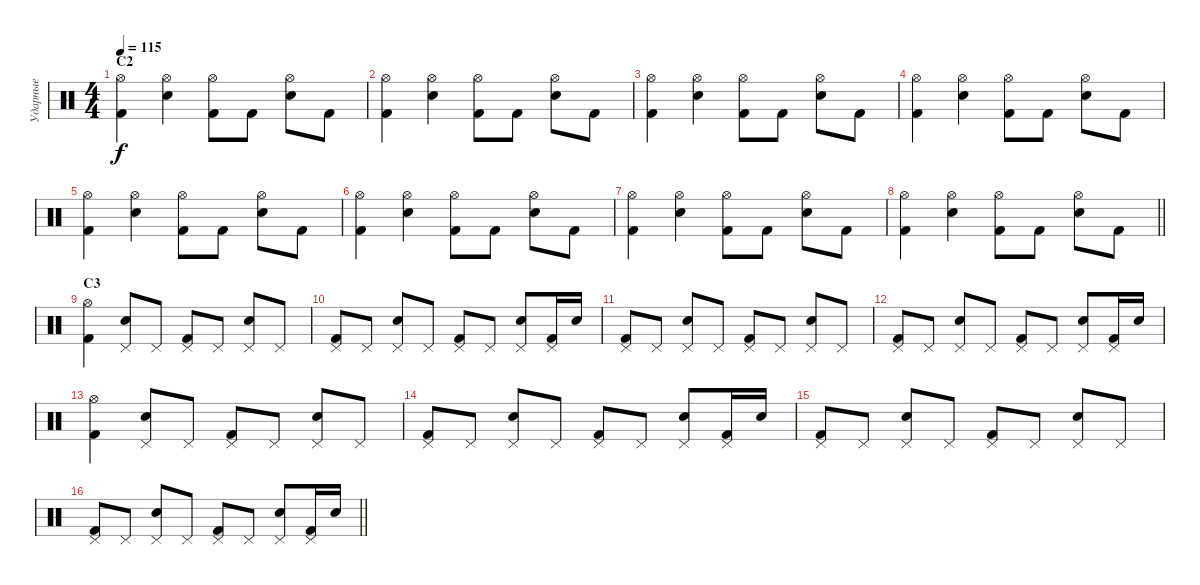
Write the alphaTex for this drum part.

\track ("Ударные" "Ударные") {instrument percussion}
\staff {score}
\articulation defaults
\ts (4 4)
\section ("" "C2")
\tempo 115
\clef neutral
\ks c
("Kick (hit) 2" "Hi-Hat (open)").4{dy f} ("Electric Snare (hit)" "Hi-Hat (open)").4 ("Kick (hit) 2" "Hi-Hat (open)").8 "Kick (hit) 2".8 ("Electric Snare (hit)" "Hi-Hat (open)").8 "Kick (hit) 2".8 |
("Kick (hit) 2" "Hi-Hat (open)").4 ("Electric Snare (hit)" "Hi-Hat (open)").4 ("Kick (hit) 2" "Hi-Hat (open)").8 "Kick (hit) 2".8 ("Electric Snare (hit)" "Hi-Hat (open)").8 "Kick (hit) 2".8 |
("Kick (hit) 2" "Hi-Hat (open)").4 ("Electric Snare (hit)" "Hi-Hat (open)").4 ("Kick (hit) 2" "Hi-Hat (open)").8 "Kick (hit) 2".8 ("Electric Snare (hit)" "Hi-Hat (open)").8 "Kick (hit) 2".8 |
("Kick (hit) 2" "Hi-Hat (open)").4 ("Electric Snare (hit)" "Hi-Hat (open)").4 ("Kick (hit) 2" "Hi-Hat (open)").8 "Kick (hit) 2".8 ("Electric Snare (hit)" "Hi-Hat (open)").8 "Kick (hit) 2".8 |
("Kick (hit) 2" "Hi-Hat (open)").4 ("Electric Snare (hit)" "Hi-Hat (open)").4 ("Kick (hit) 2" "Hi-Hat (open)").8 "Kick (hit) 2".8 ("Electric Snare (hit)" "Hi-Hat (open)").8 "Kick (hit) 2".8 |
("Kick (hit) 2" "Hi-Hat (open)").4 ("Electric Snare (hit)" "Hi-Hat (open)").4 ("Kick (hit) 2" "Hi-Hat (open)").8 "Kick (hit) 2".8 ("Electric Snare (hit)" "Hi-Hat (open)").8 "Kick (hit) 2".8 |
("Kick (hit) 2" "Hi-Hat (open)").4 ("Electric Snare (hit)" "Hi-Hat (open)").4 ("Kick (hit) 2" "Hi-Hat (open)").8 "Kick (hit) 2".8 ("Electric Snare (hit)" "Hi-Hat (open)").8 "Kick (hit) 2".8 |
\barLineRight lightlight
("Kick (hit) 2" "Hi-Hat (open)").4 ("Electric Snare (hit)" "Hi-Hat (open)").4 ("Kick (hit) 2" "Hi-Hat (open)").8 "Kick (hit) 2".8 ("Electric Snare (hit)" "Hi-Hat (open)").8 "Kick (hit) 2".8 |
\section ("" "С3")
("Hi-Hat (open)" "Kick (hit) 2").4 ("Pedal Hi-Hat (hit)" "Electric Snare (hit)").8 "Pedal Hi-Hat (hit)".8 ("Pedal Hi-Hat (hit)" "Kick (hit) 2").8 "Pedal Hi-Hat (hit)".8 ("Pedal Hi-Hat (hit)" "Electric Snare (hit)").8 "Pedal Hi-Hat (hit)".8 |
("Pedal Hi-Hat (hit)" "Kick (hit) 2").8 "Pedal Hi-Hat (hit)".8 ("Pedal Hi-Hat (hit)" "Electric Snare (hit)").8 "Pedal Hi-Hat (hit)".8 ("Pedal Hi-Hat (hit)" "Kick (hit) 2").8 "Pedal Hi-Hat (hit)".8 ("Pedal Hi-Hat (hit)" "Electric Snare (hit)").8 ("Pedal Hi-Hat (hit)" "Kick (hit) 2").16 "Electric Snare (hit)".16 |
("Pedal Hi-Hat (hit)" "Kick (hit) 2").8 "Pedal Hi-Hat (hit)".8 ("Pedal Hi-Hat (hit)" "Electric Snare (hit)").8 "Pedal Hi-Hat (hit)".8 ("Pedal Hi-Hat (hit)" "Kick (hit) 2").8 "Pedal Hi-Hat (hit)".8 ("Pedal Hi-Hat (hit)" "Electric Snare (hit)").8 "Pedal Hi-Hat (hit)".8 |
("Pedal Hi-Hat (hit)" "Kick (hit) 2").8 "Pedal Hi-Hat (hit)".8 ("Pedal Hi-Hat (hit)" "Electric Snare (hit)").8 "Pedal Hi-Hat (hit)".8 ("Pedal Hi-Hat (hit)" "Kick (hit) 2").8 "Pedal Hi-Hat (hit)".8 ("Pedal Hi-Hat (hit)" "Electric Snare (hit)").8 ("Pedal Hi-Hat (hit)" "Kick (hit) 2").16 "Electric Snare (hit)".16 |
("Hi-Hat (open)" "Kick (hit) 2").4 ("Pedal Hi-Hat (hit)" "Electric Snare (hit)").8 "Pedal Hi-Hat (hit)".8 ("Pedal Hi-Hat (hit)" "Kick (hit) 2").8 "Pedal Hi-Hat (hit)".8 ("Pedal Hi-Hat (hit)" "Electric Snare (hit)").8 "Pedal Hi-Hat (hit)".8 |
("Pedal Hi-Hat (hit)" "Kick (hit) 2").8 "Pedal Hi-Hat (hit)".8 ("Pedal Hi-Hat (hit)" "Electric Snare (hit)").8 "Pedal Hi-Hat (hit)".8 ("Pedal Hi-Hat (hit)" "Kick (hit) 2").8 "Pedal Hi-Hat (hit)".8 ("Pedal Hi-Hat (hit)" "Electric Snare (hit)").8 ("Pedal Hi-Hat (hit)" "Kick (hit) 2").16 "Electric Snare (hit)".16 |
("Pedal Hi-Hat (hit)" "Kick (hit) 2").8 "Pedal Hi-Hat (hit)".8 ("Pedal Hi-Hat (hit)" "Electric Snare (hit)").8 "Pedal Hi-Hat (hit)".8 ("Pedal Hi-Hat (hit)" "Kick (hit) 2").8 "Pedal Hi-Hat (hit)".8 ("Pedal Hi-Hat (hit)" "Electric Snare (hit)").8 "Pedal Hi-Hat (hit)".8 |
\barLineRight lightlight
("Pedal Hi-Hat (hit)" "Kick (hit) 2").8 "Pedal Hi-Hat (hit)".8 ("Pedal Hi-Hat (hit)" "Electric Snare (hit)").8 "Pedal Hi-Hat (hit)".8 ("Pedal Hi-Hat (hit)" "Kick (hit) 2").8 "Pedal Hi-Hat (hit)".8 ("Pedal Hi-Hat (hit)" "Electric Snare (hit)").8 ("Pedal Hi-Hat (hit)" "Kick (hit) 2").16 "Electric Snare (hit)".16
